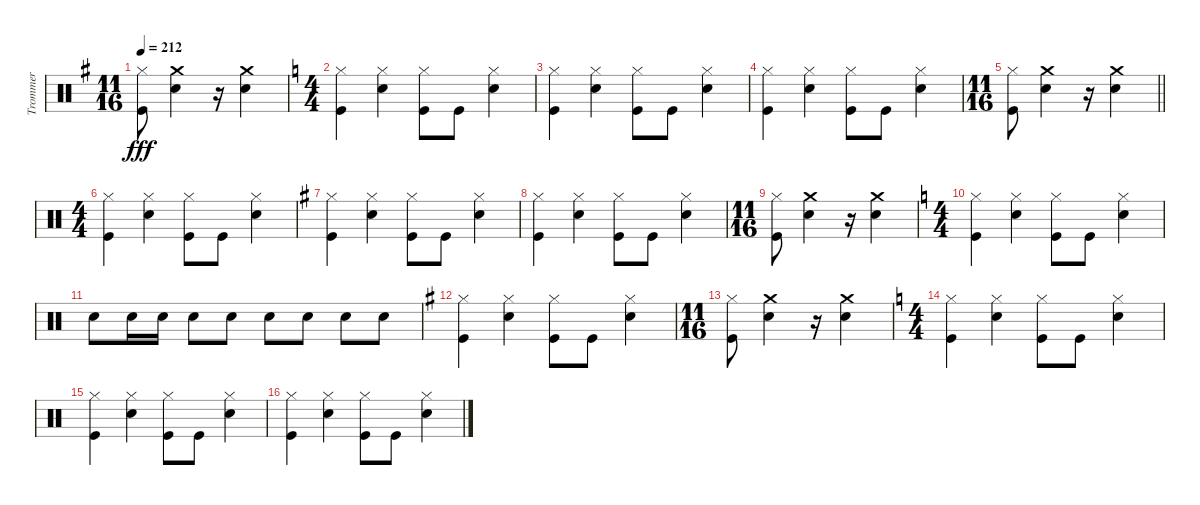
\track ("Trommer" "Trommer") {instrument percussion}
\staff {score}
\articulation defaults
\ts (11 16)
\tempo 212
\clef neutral
\ks g
("Hi-Hat (closed)" "Kick (hit)").8{dy fff} ("Snare (hit) 2" "Crash medium (hit)").4 r.16 ("Snare (hit) 2" "Crash medium (hit)").4 |
\ts (4 4)
\ks c
("Hi-Hat (closed)" "Kick (hit)").4 ("Snare (hit) 2" "Hi-Hat (closed)").4 ("Kick (hit)" "Hi-Hat (closed)").8 "Kick (hit)".8 ("Snare (hit) 2" "Hi-Hat (closed)").4 |
("Hi-Hat (closed)" "Kick (hit)").4 ("Snare (hit) 2" "Hi-Hat (closed)").4 ("Kick (hit)" "Hi-Hat (closed)").8 "Kick (hit)".8 ("Snare (hit) 2" "Hi-Hat (closed)").4 |
("Kick (hit)" "Hi-Hat (closed)").4 ("Snare (hit) 2" "Hi-Hat (closed)").4 ("Kick (hit)" "Hi-Hat (closed)").8 "Kick (hit)".8 ("Snare (hit) 2" "Hi-Hat (closed)").4 |
\ts (11 16)
\barLineRight lightlight
("Hi-Hat (closed)" "Kick (hit)").8 ("Snare (hit) 2" "Crash medium (hit)").4 r.16 ("Crash medium (hit)" "Snare (hit) 2").4 |
\ts (4 4)
("Kick (hit)" "Hi-Hat (closed)").4 ("Snare (hit) 2" "Hi-Hat (closed)").4 ("Kick (hit)" "Hi-Hat (closed)").8 "Kick (hit)".8 ("Snare (hit) 2" "Hi-Hat (closed)").4 |
\ks g
("Hi-Hat (closed)" "Kick (hit)").4 ("Snare (hit) 2" "Hi-Hat (closed)").4 ("Hi-Hat (closed)" "Kick (hit)").8 "Kick (hit)".8 ("Snare (hit) 2" "Hi-Hat (closed)").4 |
("Hi-Hat (closed)" "Kick (hit)").4 ("Snare (hit) 2" "Hi-Hat (closed)").4 ("Kick (hit)" "Hi-Hat (closed)").8 "Kick (hit)".8 ("Hi-Hat (closed)" "Snare (hit) 2").4 |
\ts (11 16)
("Hi-Hat (closed)" "Kick (hit)").8 ("Snare (hit) 2" "Crash medium (hit)").4 r.16 ("Snare (hit) 2" "Crash medium (hit)").4 |
\ts (4 4)
\ks c
("Hi-Hat (closed)" "Kick (hit)").4 ("Snare (hit) 2" "Hi-Hat (closed)").4 ("Kick (hit)" "Hi-Hat (closed)").8 "Kick (hit)".8 ("Snare (hit) 2" "Hi-Hat (closed)").4 |
"Snare (hit) 2".8 "Snare (hit) 2".16 "Snare (hit) 2".16 "Snare (hit) 2".8 "Snare (hit) 2".8 "Snare (hit) 2".8 "Snare (hit) 2".8 "Snare (hit) 2".8 "Snare (hit) 2".8 |
\ks g
("Kick (hit)" "Hi-Hat (closed)").4 ("Hi-Hat (closed)" "Snare (hit) 2").4 ("Kick (hit)" "Hi-Hat (closed)").8 "Kick (hit)".8 ("Snare (hit) 2" "Hi-Hat (closed)").4 |
\ts (11 16)
("Hi-Hat (closed)" "Kick (hit)").8 ("Snare (hit) 2" "Crash medium (hit)").4 r.16 ("Snare (hit) 2" "Crash medium (hit)").4 |
\ts (4 4)
\ks c
("Kick (hit)" "Hi-Hat (closed)").4 ("Snare (hit) 2" "Hi-Hat (closed)").4 ("Kick (hit)" "Hi-Hat (closed)").8 "Kick (hit)".8 ("Snare (hit) 2" "Hi-Hat (closed)").4 |
("Hi-Hat (closed)" "Kick (hit)").4 ("Snare (hit) 2" "Hi-Hat (closed)").4 ("Hi-Hat (closed)" "Kick (hit)").8 "Kick (hit)".8 ("Snare (hit) 2" "Hi-Hat (closed)").4 |
("Hi-Hat (closed)" "Kick (hit)").4 ("Snare (hit) 2" "Hi-Hat (closed)").4 ("Kick (hit)" "Hi-Hat (closed)").8 "Kick (hit)".8 ("Hi-Hat (closed)" "Snare (hit) 2").4
